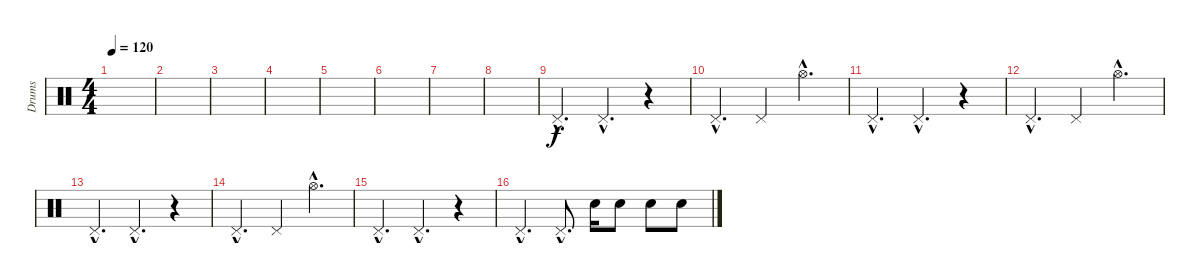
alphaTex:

\track ("Drums" "Drums") {instrument percussion}
\staff {score}
\articulation defaults
\ts (4 4)
\tempo 120
\tempo 80
\tempo 120
\clef neutral
\ks c
|
|
|
|
|
|
|
|
"Pedal Hi-Hat (hit)"{hac}.4{d} "Pedal Hi-Hat (hit)"{hac}.4{d} r.4 |
"Pedal Hi-Hat (hit)"{hac}.4{d} "Pedal Hi-Hat (hit)".4 "Hi-Hat (open)"{hac}.4{d} |
"Pedal Hi-Hat (hit)"{hac}.4{d} "Pedal Hi-Hat (hit)"{hac}.4{d} r.4 |
"Pedal Hi-Hat (hit)"{hac}.4{d} "Pedal Hi-Hat (hit)".4 "Hi-Hat (open)"{hac}.4{d} |
"Pedal Hi-Hat (hit)"{hac}.4{d} "Pedal Hi-Hat (hit)"{hac}.4{d} r.4 |
"Pedal Hi-Hat (hit)"{hac}.4{d} "Pedal Hi-Hat (hit)".4 "Hi-Hat (open)"{hac}.4{d} |
"Pedal Hi-Hat (hit)"{hac}.4{d} "Pedal Hi-Hat (hit)"{hac}.4{d} r.4 |
"Pedal Hi-Hat (hit)"{hac}.4{d} "Pedal Hi-Hat (hit)"{hac}.8{d} "Snare (hit) 2".16 "Snare (hit) 2".8 "Snare (hit) 2".8 "Snare (hit) 2".8
